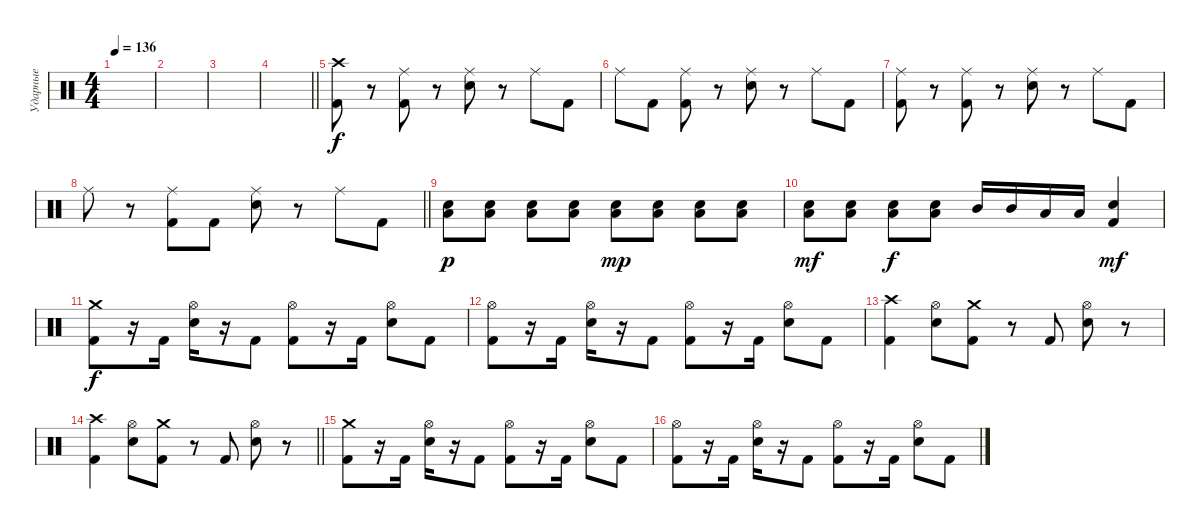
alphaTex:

\track ("Ударные" "Ударные") {instrument percussion}
\staff {score}
\articulation defaults
\ts (4 4)
\tempo 136
\clef neutral
\ks c
|
|
|
\barLineRight lightlight
|
("Crash high (hit)" "Kick (hit) 2").8 r.8 ("Ride (middle)" "Kick (hit) 2").8 r.8 ("Ride (middle)" "Snare (hit) 2").8 r.8 "Ride (middle)".8 "Kick (hit) 2".8 |
"Ride (middle)".8 "Kick (hit) 2".8 ("Ride (middle)" "Kick (hit) 2").8 r.8 ("Ride (middle)" "Snare (hit) 2").8 r.8 "Ride (middle)".8 "Kick (hit) 2".8 |
("Ride (middle)" "Kick (hit) 2").8 r.8 ("Ride (middle)" "Kick (hit) 2").8 r.8 ("Ride (middle)" "Snare (hit) 2").8 r.8 "Ride (middle)".8 "Kick (hit) 2".8 |
\barLineRight lightlight "Ride (middle)".8
r.8 ("Ride (middle)" "Kick (hit) 2").8 "Kick (hit) 2".8 ("Ride (middle)" "Snare (hit) 2").8 r.8 "Ride (middle)".8 "Kick (hit) 2".8 |
("Low Tom (hit)" "Snare (hit) 2").8{dy p} ("Low Tom (hit)" "Snare (hit) 2").8 ("Low Tom (hit)" "Snare (hit) 2").8 ("Low Tom (hit)" "Snare (hit) 2").8 ("Low Tom (hit)" "Snare (hit) 2").8{dy mp} ("Low Tom (hit)" "Snare (hit) 2").8 ("Low Tom (hit)" "Snare (hit) 2").8 ("Low Tom (hit)" "Snare (hit) 2").8 |
("Low Tom (hit)" "Snare (hit) 2").8{dy mf} ("Low Tom (hit)" "Snare (hit) 2").8 ("Low Tom (hit)" "Snare (hit) 2").8{dy f} ("Low Tom (hit)" "Snare (hit) 2").8 "Mid Tom (hit)".16 "Mid Tom (hit)".16 "Low Tom (hit)".16 "Low Tom (hit)".16 ("Snare (hit) 2" "Kick (hit) 2").4{dy mf} |
("Crash medium (hit)" "Kick (hit) 2").8{dy f} r.16 "Kick (hit) 2".16 ("Hi-Hat (open)" "Snare (hit) 2").16 r.16 "Kick (hit) 2".8 ("Hi-Hat (open)" "Kick (hit) 2").8 r.16 "Kick (hit) 2".16 ("Hi-Hat (open)" "Snare (hit) 2").8 "Kick (hit) 2".8 |
("Hi-Hat (open)" "Kick (hit) 2").8 r.16 "Kick (hit) 2".16 ("Hi-Hat (open)" "Snare (hit) 2").16 r.16 "Kick (hit) 2".8 ("Hi-Hat (open)" "Kick (hit) 2").8 r.16 "Kick (hit) 2".16 ("Hi-Hat (open)" "Snare (hit) 2").8 "Kick (hit) 2".8 |
("Crash high (hit)" "Kick (hit) 2").4 ("Hi-Hat (open)" "Snare (hit) 2").8 ("Crash medium (hit)" "Kick (hit) 2").8 r.8 "Kick (hit) 2".8 ("Hi-Hat (open)" "Snare (hit) 2").8 r.8 |
\barLineRight lightlight
("Crash high (hit)" "Kick (hit) 2").4 ("Hi-Hat (open)" "Snare (hit) 2").8 ("Crash medium (hit)" "Kick (hit) 2").8 r.8 "Kick (hit) 2".8 ("Hi-Hat (open)" "Snare (hit) 2").8 r.8 |
("Crash medium (hit)" "Kick (hit) 2").8 r.16 "Kick (hit) 2".16 ("Hi-Hat (open)" "Snare (hit) 2").16 r.16 "Kick (hit) 2".8 ("Hi-Hat (open)" "Kick (hit) 2").8 r.16 "Kick (hit) 2".16 ("Hi-Hat (open)" "Snare (hit) 2").8 "Kick (hit) 2".8 |
("Hi-Hat (open)" "Kick (hit) 2").8 r.16 "Kick (hit) 2".16 ("Hi-Hat (open)" "Snare (hit) 2").16 r.16 "Kick (hit) 2".8 ("Hi-Hat (open)" "Kick (hit) 2").8 r.16 "Kick (hit) 2".16 ("Hi-Hat (open)" "Snare (hit) 2").8 "Kick (hit) 2".8
